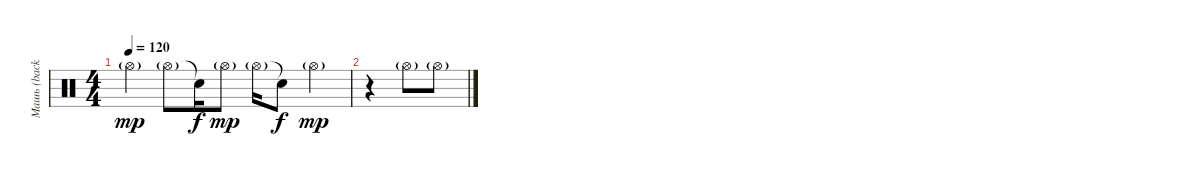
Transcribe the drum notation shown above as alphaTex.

\track ("Машь (backpercussion)" "Машь (back") {instrument percussion}
\staff {score}
\articulation defaults
\ts (4 4)
\tempo 120
\clef neutral
\ks c "Hi-Hat (open)"{g}.4{dy mp} "Hi-Hat (open)"{g}.8 "Snare (hit)"{t}.16{dy f} "Hi-Hat (open)"{g}.8{dy mp} "Hi-Hat (open)"{g}.16 "Snare (hit)"{t}.8{dy f} "Hi-Hat (open)"{g}.4{dy mp}
|
r.4 "Hi-Hat (open)"{g}.8 "Hi-Hat (open)"{g}.8
